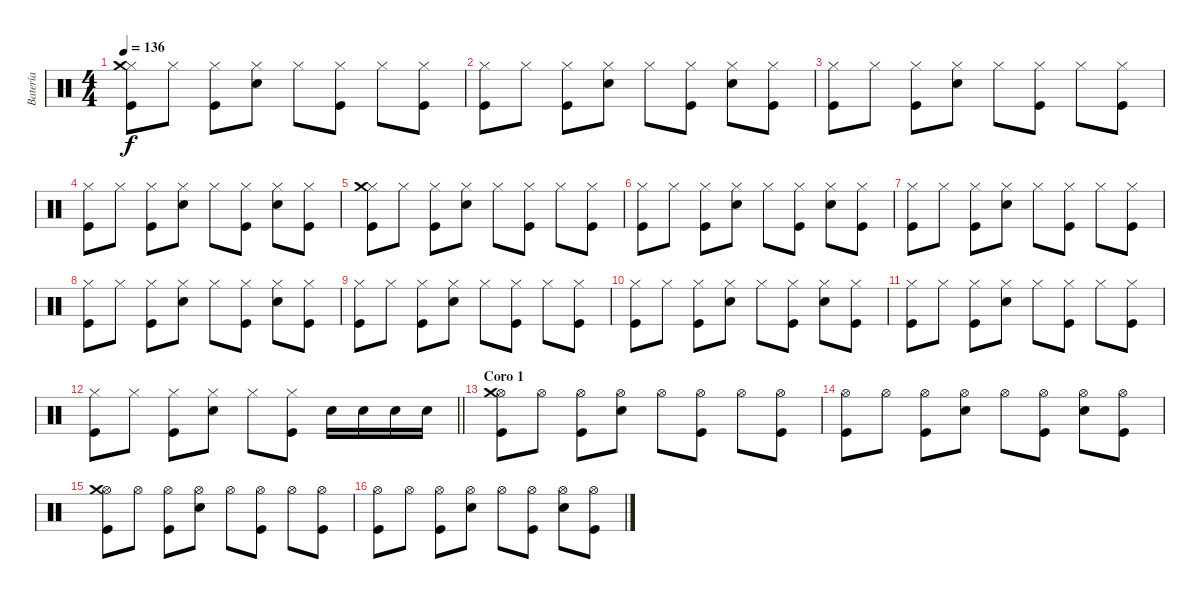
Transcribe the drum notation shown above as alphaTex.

\track ("Batería" "Batería") {instrument percussion}
\staff {score}
\articulation defaults
\ts (4 4)
\tempo 136
\clef neutral
\ks c
("Hi-Hat (closed)" "Crash medium (hit)" "Kick (hit)").8{dy f} "Hi-Hat (closed)".8 ("Hi-Hat (closed)" "Kick (hit)").8 ("Hi-Hat (closed)" "Snare (hit) 2").8 "Hi-Hat (closed)".8 ("Hi-Hat (closed)" "Kick (hit)").8 "Hi-Hat (closed)".8 ("Hi-Hat (closed)" "Kick (hit)").8 |
("Hi-Hat (closed)" "Kick (hit)").8 "Hi-Hat (closed)".8 ("Hi-Hat (closed)" "Kick (hit)").8 ("Hi-Hat (closed)" "Snare (hit) 2").8 "Hi-Hat (closed)".8 ("Hi-Hat (closed)" "Kick (hit)").8 ("Hi-Hat (closed)" "Snare (hit) 2").8 ("Hi-Hat (closed)" "Kick (hit)").8 |
("Hi-Hat (closed)" "Kick (hit)").8 "Hi-Hat (closed)".8 ("Hi-Hat (closed)" "Kick (hit)").8 ("Hi-Hat (closed)" "Snare (hit) 2").8 "Hi-Hat (closed)".8 ("Hi-Hat (closed)" "Kick (hit)").8 "Hi-Hat (closed)".8 ("Hi-Hat (closed)" "Kick (hit)").8 |
("Hi-Hat (closed)" "Kick (hit)").8 "Hi-Hat (closed)".8 ("Hi-Hat (closed)" "Kick (hit)").8 ("Hi-Hat (closed)" "Snare (hit) 2").8 "Hi-Hat (closed)".8 ("Hi-Hat (closed)" "Kick (hit)").8 ("Hi-Hat (closed)" "Snare (hit) 2").8 ("Hi-Hat (closed)" "Kick (hit)").8 |
("Hi-Hat (closed)" "Crash medium (hit)" "Kick (hit)").8 "Hi-Hat (closed)".8 ("Hi-Hat (closed)" "Kick (hit)").8 ("Hi-Hat (closed)" "Snare (hit) 2").8 "Hi-Hat (closed)".8 ("Hi-Hat (closed)" "Kick (hit)").8 "Hi-Hat (closed)".8 ("Hi-Hat (closed)" "Kick (hit)").8 |
("Hi-Hat (closed)" "Kick (hit)").8 "Hi-Hat (closed)".8 ("Hi-Hat (closed)" "Kick (hit)").8 ("Hi-Hat (closed)" "Snare (hit) 2").8 "Hi-Hat (closed)".8 ("Hi-Hat (closed)" "Kick (hit)").8 ("Hi-Hat (closed)" "Snare (hit) 2").8 ("Hi-Hat (closed)" "Kick (hit)").8 |
("Hi-Hat (closed)" "Kick (hit)").8 "Hi-Hat (closed)".8 ("Hi-Hat (closed)" "Kick (hit)").8 ("Hi-Hat (closed)" "Snare (hit) 2").8 "Hi-Hat (closed)".8 ("Hi-Hat (closed)" "Kick (hit)").8 "Hi-Hat (closed)".8 ("Hi-Hat (closed)" "Kick (hit)").8 |
("Hi-Hat (closed)" "Kick (hit)").8 "Hi-Hat (closed)".8 ("Hi-Hat (closed)" "Kick (hit)").8 ("Hi-Hat (closed)" "Snare (hit) 2").8 "Hi-Hat (closed)".8 ("Hi-Hat (closed)" "Kick (hit)").8 ("Hi-Hat (closed)" "Snare (hit) 2").8 ("Hi-Hat (closed)" "Kick (hit)").8 |
("Hi-Hat (closed)" "Kick (hit)").8 "Hi-Hat (closed)".8 ("Hi-Hat (closed)" "Kick (hit)").8 ("Hi-Hat (closed)" "Snare (hit) 2").8 "Hi-Hat (closed)".8 ("Hi-Hat (closed)" "Kick (hit)").8 "Hi-Hat (closed)".8 ("Hi-Hat (closed)" "Kick (hit)").8 |
("Hi-Hat (closed)" "Kick (hit)").8 "Hi-Hat (closed)".8 ("Hi-Hat (closed)" "Kick (hit)").8 ("Hi-Hat (closed)" "Snare (hit) 2").8 "Hi-Hat (closed)".8 ("Hi-Hat (closed)" "Kick (hit)").8 ("Hi-Hat (closed)" "Snare (hit) 2").8 ("Hi-Hat (closed)" "Kick (hit)").8 |
("Hi-Hat (closed)" "Kick (hit)").8 "Hi-Hat (closed)".8 ("Hi-Hat (closed)" "Kick (hit)").8 ("Hi-Hat (closed)" "Snare (hit) 2").8 "Hi-Hat (closed)".8 ("Hi-Hat (closed)" "Kick (hit)").8 "Hi-Hat (closed)".8 ("Hi-Hat (closed)" "Kick (hit)").8 |
\barLineRight lightlight
("Hi-Hat (closed)" "Kick (hit)").8 "Hi-Hat (closed)".8 ("Hi-Hat (closed)" "Kick (hit)").8 ("Hi-Hat (closed)" "Snare (hit) 2").8 "Hi-Hat (closed)".8 ("Hi-Hat (closed)" "Kick (hit)").8 "Snare (hit) 2".16 "Snare (hit) 2".16 "Snare (hit) 2".16 "Snare (hit) 2".16 |
\section ("" "Coro 1")
("Hi-Hat (open)" "Crash medium (hit)" "Kick (hit)").8 "Hi-Hat (open)".8 ("Hi-Hat (open)" "Kick (hit)").8 ("Hi-Hat (open)" "Snare (hit) 2").8 "Hi-Hat (open)".8 ("Hi-Hat (open)" "Kick (hit)").8 "Hi-Hat (open)".8 ("Hi-Hat (open)" "Kick (hit)").8 |
("Hi-Hat (open)" "Kick (hit)").8 "Hi-Hat (open)".8 ("Hi-Hat (open)" "Kick (hit)").8 ("Hi-Hat (open)" "Snare (hit) 2").8 "Hi-Hat (open)".8 ("Hi-Hat (open)" "Kick (hit)").8 ("Hi-Hat (open)" "Snare (hit) 2").8 ("Hi-Hat (open)" "Kick (hit)").8 |
("Hi-Hat (open)" "Crash medium (hit)" "Kick (hit)").8 "Hi-Hat (open)".8 ("Hi-Hat (open)" "Kick (hit)").8 ("Hi-Hat (open)" "Snare (hit) 2").8 "Hi-Hat (open)".8 ("Hi-Hat (open)" "Kick (hit)").8 "Hi-Hat (open)".8 ("Hi-Hat (open)" "Kick (hit)").8 |
("Hi-Hat (open)" "Kick (hit)").8 "Hi-Hat (open)".8 ("Hi-Hat (open)" "Kick (hit)").8 ("Hi-Hat (open)" "Snare (hit) 2").8 "Hi-Hat (open)".8 ("Hi-Hat (open)" "Kick (hit)").8 ("Hi-Hat (open)" "Snare (hit) 2").8 ("Hi-Hat (open)" "Kick (hit)").8
